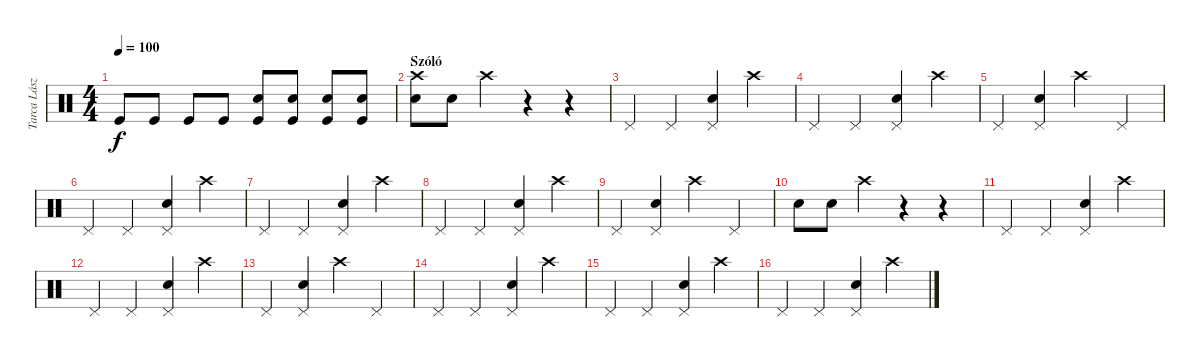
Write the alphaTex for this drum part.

\track ("Tarca László" "Tarca Lász") {instrument percussion}
\staff {score}
\articulation defaults
\ts (4 4)
\tempo 100
\clef neutral
\ks c "Kick (hit)".8{dy f} "Kick (hit)".8 "Kick (hit)".8 "Kick (hit)".8
("Snare (hit) 2" "Kick (hit)").8 ("Snare (hit) 2" "Kick (hit)").8 ("Snare (hit) 2" "Kick (hit)").8 ("Snare (hit) 2" "Kick (hit)").8 |
\section ("" "Szóló")
("Crash high (hit)" "Snare (hit) 2").8 "Snare (hit) 2".8 "Crash high (hit)".4 r.4 r.4 |
"Pedal Hi-Hat (hit)".4 "Pedal Hi-Hat (hit)".4 ("Snare (hit) 2" "Pedal Hi-Hat (hit)").4 "Crash high (hit)".4 |
"Pedal Hi-Hat (hit)".4 "Pedal Hi-Hat (hit)".4 ("Snare (hit) 2" "Pedal Hi-Hat (hit)").4 "Crash high (hit)".4 |
"Pedal Hi-Hat (hit)".4 ("Snare (hit) 2" "Pedal Hi-Hat (hit)").4 "Crash high (hit)".4 "Pedal Hi-Hat (hit)".4 |
"Pedal Hi-Hat (hit)".4 "Pedal Hi-Hat (hit)".4 ("Snare (hit) 2" "Pedal Hi-Hat (hit)").4 "Crash high (hit)".4 |
"Pedal Hi-Hat (hit)".4 "Pedal Hi-Hat (hit)".4 ("Snare (hit) 2" "Pedal Hi-Hat (hit)").4 "Crash high (hit)".4 |
"Pedal Hi-Hat (hit)".4 "Pedal Hi-Hat (hit)".4 ("Snare (hit) 2" "Pedal Hi-Hat (hit)").4 "Crash high (hit)".4 |
"Pedal Hi-Hat (hit)".4 ("Snare (hit) 2" "Pedal Hi-Hat (hit)").4 "Crash high (hit)".4 "Pedal Hi-Hat (hit)".4 |
"Snare (hit) 2".8 "Snare (hit) 2".8 "Crash high (hit)".4 r.4 r.4 |
"Pedal Hi-Hat (hit)".4 "Pedal Hi-Hat (hit)".4 ("Snare (hit) 2" "Pedal Hi-Hat (hit)").4 "Crash high (hit)".4 |
"Pedal Hi-Hat (hit)".4 "Pedal Hi-Hat (hit)".4 ("Snare (hit) 2" "Pedal Hi-Hat (hit)").4 "Crash high (hit)".4 |
"Pedal Hi-Hat (hit)".4 ("Snare (hit) 2" "Pedal Hi-Hat (hit)").4 "Crash high (hit)".4 "Pedal Hi-Hat (hit)".4 |
"Pedal Hi-Hat (hit)".4 "Pedal Hi-Hat (hit)".4 ("Snare (hit) 2" "Pedal Hi-Hat (hit)").4 "Crash high (hit)".4 |
"Pedal Hi-Hat (hit)".4 "Pedal Hi-Hat (hit)".4 ("Snare (hit) 2" "Pedal Hi-Hat (hit)").4 "Crash high (hit)".4 |
"Pedal Hi-Hat (hit)".4 "Pedal Hi-Hat (hit)".4 ("Snare (hit) 2" "Pedal Hi-Hat (hit)").4 "Crash high (hit)".4
